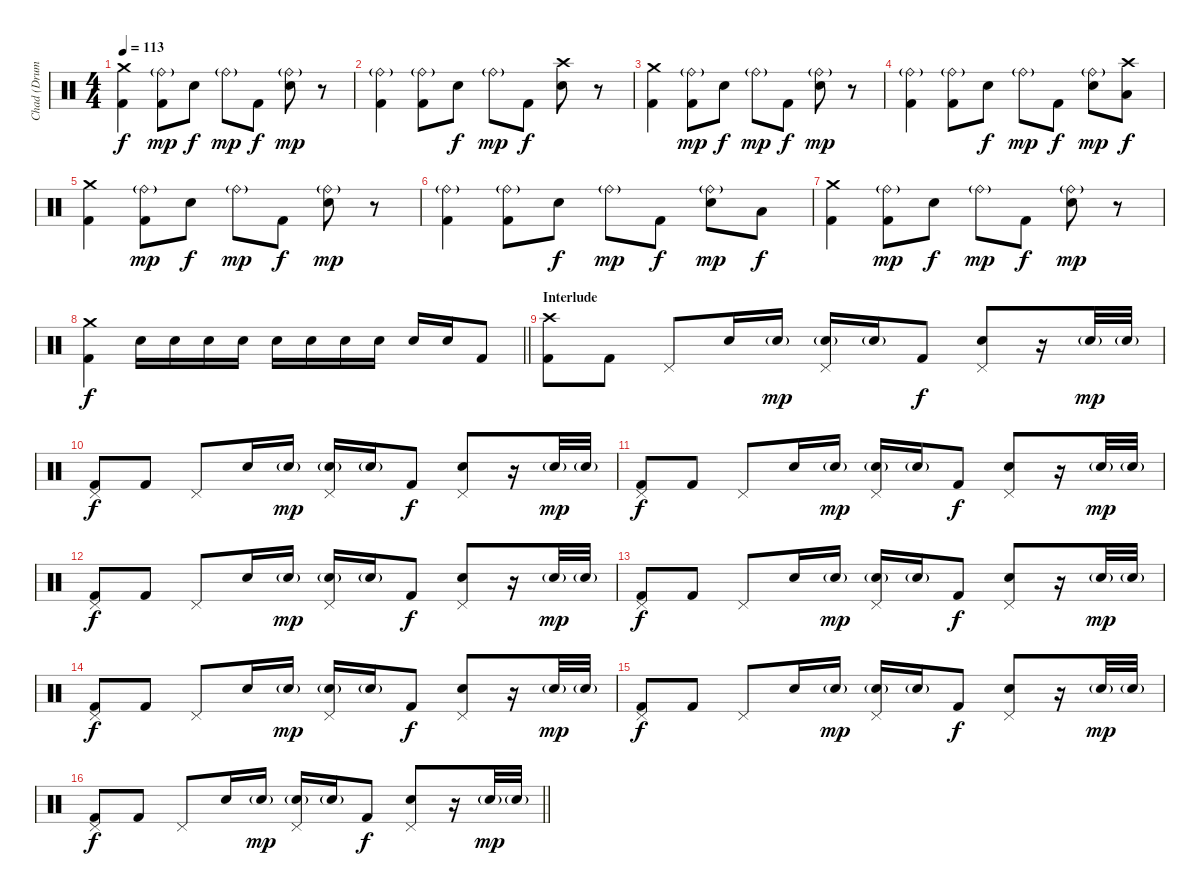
\track ("Chad (Drums)" "Chad (Drum") {instrument percussion}
\staff {score}
\articulation defaults
\ts (4 4)
\tempo 113
\clef neutral
\ks c
("Crash medium (hit)" "Kick (hit) 2").4{dy f} ("Ride (bell)"{g} "Kick (hit) 2").8{dy mp} "Snare (hit) 2".8{dy f} "Ride (bell)"{g}.8{dy mp} "Kick (hit) 2".8{dy f} ("Ride (bell)"{g} "Snare (hit) 2").8{dy mp} r.8 |
("Ride (bell)"{g} "Kick (hit) 2").4 ("Ride (bell)"{g} "Kick (hit) 2").8 "Snare (hit) 2".8{dy f} "Ride (bell)"{g}.8{dy mp} "Kick (hit) 2".8{dy f} ("Crash high (hit)" "Snare (hit) 2").8 r.8 |
("Crash medium (hit)" "Kick (hit) 2").4 ("Ride (bell)"{g} "Kick (hit) 2").8{dy mp} "Snare (hit) 2".8{dy f} "Ride (bell)"{g}.8{dy mp} "Kick (hit) 2".8{dy f} ("Ride (bell)"{g} "Snare (hit) 2").8{dy mp} r.8 |
("Ride (bell)"{g} "Kick (hit) 2").4 ("Ride (bell)"{g} "Kick (hit) 2").8 "Snare (hit) 2".8{dy f} "Ride (bell)"{g}.8{dy mp} "Kick (hit) 2".8{dy f} ("Ride (bell)"{g} "Snare (hit) 2").8{dy mp} ("Crash high (hit)" "Low Floor Tom (hit)").8{dy f} |
("Crash medium (hit)" "Kick (hit) 2").4 ("Ride (bell)"{g} "Kick (hit) 2").8{dy mp} "Snare (hit) 2".8{dy f} "Ride (bell)"{g}.8{dy mp} "Kick (hit) 2".8{dy f} ("Ride (bell)"{g} "Snare (hit) 2").8{dy mp} r.8 |
("Ride (bell)"{g} "Kick (hit) 2").4 ("Ride (bell)"{g} "Kick (hit) 2").8 "Snare (hit) 2".8{dy f} "Ride (bell)"{g}.8{dy mp} "Kick (hit) 2".8{dy f} ("Ride (bell)"{g} "Snare (hit) 2").8{dy mp} "Low Floor Tom (hit)".8{dy f} |
("Crash medium (hit)" "Kick (hit) 2").4 ("Ride (bell)"{g} "Kick (hit) 2").8{dy mp} "Snare (hit) 2".8{dy f} "Ride (bell)"{g}.8{dy mp} "Kick (hit) 2".8{dy f} ("Ride (bell)"{g} "Snare (hit) 2").8{dy mp} r.8 |
\barLineRight lightlight
("Crash medium (hit)" "Kick (hit) 2").4{dy f} "Electric Snare (hit)".16 "Electric Snare (hit)".16 "Electric Snare (hit)".16 "Electric Snare (hit)".16 "Electric Snare (hit)".16 "Electric Snare (hit)".16 "Electric Snare (hit)".16 "Electric Snare (hit)".16 "Electric Snare (hit)".16 "Electric Snare (hit)".16 "Kick (hit) 2".8 |
\section ("" "Interlude")
("Crash high (hit)" "Kick (hit) 2").8 "Kick (hit) 2".8 "Pedal Hi-Hat (hit)".8 "Snare (hit) 2".16 "Snare (hit) 2"{g}.16{dy mp} ("Pedal Hi-Hat (hit)" "Snare (hit) 2"{g}).16 "Snare (hit) 2"{g}.16 "Kick (hit) 2".8{dy f} ("Pedal Hi-Hat (hit)" "Snare (hit) 2").8 r.16 "Snare (hit) 2"{g}.32{dy mp} "Snare (hit) 2"{g}.32 |
("Pedal Hi-Hat (hit)" "Kick (hit) 2").8{dy f} "Kick (hit) 2".8 "Pedal Hi-Hat (hit)".8 "Snare (hit) 2".16 "Snare (hit) 2"{g}.16{dy mp} ("Pedal Hi-Hat (hit)" "Snare (hit) 2"{g}).16 "Snare (hit) 2"{g}.16 "Kick (hit) 2".8{dy f} ("Pedal Hi-Hat (hit)" "Snare (hit) 2").8 r.16 "Snare (hit) 2"{g}.32{dy mp} "Snare (hit) 2"{g}.32 |
("Pedal Hi-Hat (hit)" "Kick (hit) 2").8{dy f} "Kick (hit) 2".8 "Pedal Hi-Hat (hit)".8 "Snare (hit) 2".16 "Snare (hit) 2"{g}.16{dy mp} ("Pedal Hi-Hat (hit)" "Snare (hit) 2"{g}).16 "Snare (hit) 2"{g}.16 "Kick (hit) 2".8{dy f} ("Pedal Hi-Hat (hit)" "Snare (hit) 2").8 r.16 "Snare (hit) 2"{g}.32{dy mp} "Snare (hit) 2"{g}.32 |
("Pedal Hi-Hat (hit)" "Kick (hit) 2").8{dy f} "Kick (hit) 2".8 "Pedal Hi-Hat (hit)".8 "Snare (hit) 2".16 "Snare (hit) 2"{g}.16{dy mp} ("Pedal Hi-Hat (hit)" "Snare (hit) 2"{g}).16 "Snare (hit) 2"{g}.16 "Kick (hit) 2".8{dy f} ("Pedal Hi-Hat (hit)" "Snare (hit) 2").8 r.16 "Snare (hit) 2"{g}.32{dy mp} "Snare (hit) 2"{g}.32 |
("Pedal Hi-Hat (hit)" "Kick (hit) 2").8{dy f} "Kick (hit) 2".8 "Pedal Hi-Hat (hit)".8 "Snare (hit) 2".16 "Snare (hit) 2"{g}.16{dy mp} ("Pedal Hi-Hat (hit)" "Snare (hit) 2"{g}).16 "Snare (hit) 2"{g}.16 "Kick (hit) 2".8{dy f} ("Pedal Hi-Hat (hit)" "Snare (hit) 2").8 r.16 "Snare (hit) 2"{g}.32{dy mp} "Snare (hit) 2"{g}.32 |
("Pedal Hi-Hat (hit)" "Kick (hit) 2").8{dy f} "Kick (hit) 2".8 "Pedal Hi-Hat (hit)".8 "Snare (hit) 2".16 "Snare (hit) 2"{g}.16{dy mp} ("Pedal Hi-Hat (hit)" "Snare (hit) 2"{g}).16 "Snare (hit) 2"{g}.16 "Kick (hit) 2".8{dy f} ("Pedal Hi-Hat (hit)" "Snare (hit) 2").8 r.16 "Snare (hit) 2"{g}.32{dy mp} "Snare (hit) 2"{g}.32 |
("Pedal Hi-Hat (hit)" "Kick (hit) 2").8{dy f} "Kick (hit) 2".8 "Pedal Hi-Hat (hit)".8 "Snare (hit) 2".16 "Snare (hit) 2"{g}.16{dy mp} ("Pedal Hi-Hat (hit)" "Snare (hit) 2"{g}).16 "Snare (hit) 2"{g}.16 "Kick (hit) 2".8{dy f} ("Pedal Hi-Hat (hit)" "Snare (hit) 2").8 r.16 "Snare (hit) 2"{g}.32{dy mp} "Snare (hit) 2"{g}.32 |
\barLineRight lightlight
("Pedal Hi-Hat (hit)" "Kick (hit) 2").8{dy f} "Kick (hit) 2".8 "Pedal Hi-Hat (hit)".8 "Snare (hit) 2".16 "Snare (hit) 2"{g}.16{dy mp} ("Pedal Hi-Hat (hit)" "Snare (hit) 2"{g}).16 "Snare (hit) 2"{g}.16 "Kick (hit) 2".8{dy f} ("Pedal Hi-Hat (hit)" "Snare (hit) 2").8 r.16 "Snare (hit) 2"{g}.32{dy mp} "Snare (hit) 2"{g}.32
